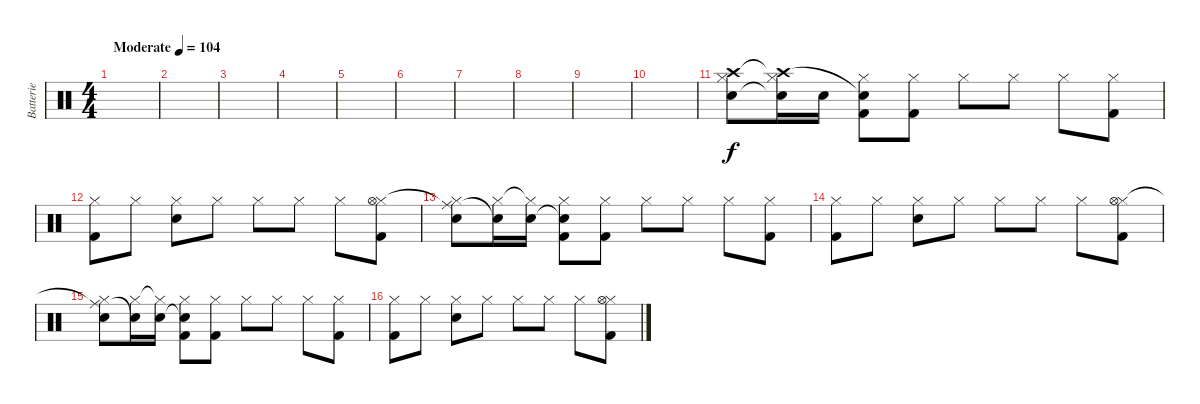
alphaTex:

\track ("Batterie" "Batterie") {instrument percussion}
\staff {score}
\articulation defaults
\ts (4 4)
\tempo (104 "Moderate")
\clef neutral
\ks c
|
|
|
|
|
|
|
|
|
|
("Hi-Hat (closed)" "Crash high (hit)" "Electric Snare (hit)").8 ("Hi-Hat (closed)" "Crash high (hit)"{t} "Electric Snare (hit)"{t}).16 "Electric Snare (hit)".16 ("Hi-Hat (closed)" "Snare (hit) 2"{t} "Kick (hit) 2").8 ("Hi-Hat (closed)" "Kick (hit) 2").8 "Hi-Hat (closed)".8 "Hi-Hat (closed)".8 "Hi-Hat (closed)".8 ("Hi-Hat (closed)" "Kick (hit) 2").8 |
("Hi-Hat (closed)" "Kick (hit) 2").8 "Hi-Hat (closed)".8 ("Hi-Hat (closed)" "Electric Snare (hit)").8 "Hi-Hat (closed)".8 "Hi-Hat (closed)".8 "Hi-Hat (closed)".8 "Hi-Hat (closed)".8 ("Hi-Hat (closed)" "Hi-Hat (open)" "Kick (hit) 2").8 |
("Hi-Hat (closed)" "Ride (middle)"{t} "Electric Snare (hit)").8 ("Hi-Hat (closed)" "Electric Snare (hit)"{t}).16 ("Hi-Hat (closed)"{t} "Electric Snare (hit)").16 ("Hi-Hat (closed)" "Snare (hit) 2"{t} "Kick (hit) 2").8 ("Hi-Hat (closed)" "Kick (hit) 2").8 "Hi-Hat (closed)".8 "Hi-Hat (closed)".8 "Hi-Hat (closed)".8 ("Hi-Hat (closed)" "Kick (hit) 2").8 |
("Hi-Hat (closed)" "Kick (hit) 2").8 "Hi-Hat (closed)".8 ("Hi-Hat (closed)" "Electric Snare (hit)").8 "Hi-Hat (closed)".8 "Hi-Hat (closed)".8 "Hi-Hat (closed)".8 "Hi-Hat (closed)".8 ("Hi-Hat (closed)" "Hi-Hat (open)" "Kick (hit) 2").8 |
("Hi-Hat (closed)" "Ride (middle)"{t} "Electric Snare (hit)").8 ("Hi-Hat (closed)" "Electric Snare (hit)"{t}).16 ("Hi-Hat (closed)"{t} "Electric Snare (hit)").16 ("Hi-Hat (closed)" "Snare (hit) 2"{t} "Kick (hit) 2").8 ("Hi-Hat (closed)" "Kick (hit) 2").8 "Hi-Hat (closed)".8 "Hi-Hat (closed)".8 "Hi-Hat (closed)".8 ("Hi-Hat (closed)" "Kick (hit) 2").8 |
("Hi-Hat (closed)" "Kick (hit) 2").8 "Hi-Hat (closed)".8 ("Hi-Hat (closed)" "Electric Snare (hit)").8 "Hi-Hat (closed)".8 "Hi-Hat (closed)".8 "Hi-Hat (closed)".8 "Hi-Hat (closed)".8 ("Hi-Hat (closed)" "Hi-Hat (open)" "Kick (hit) 2").8
